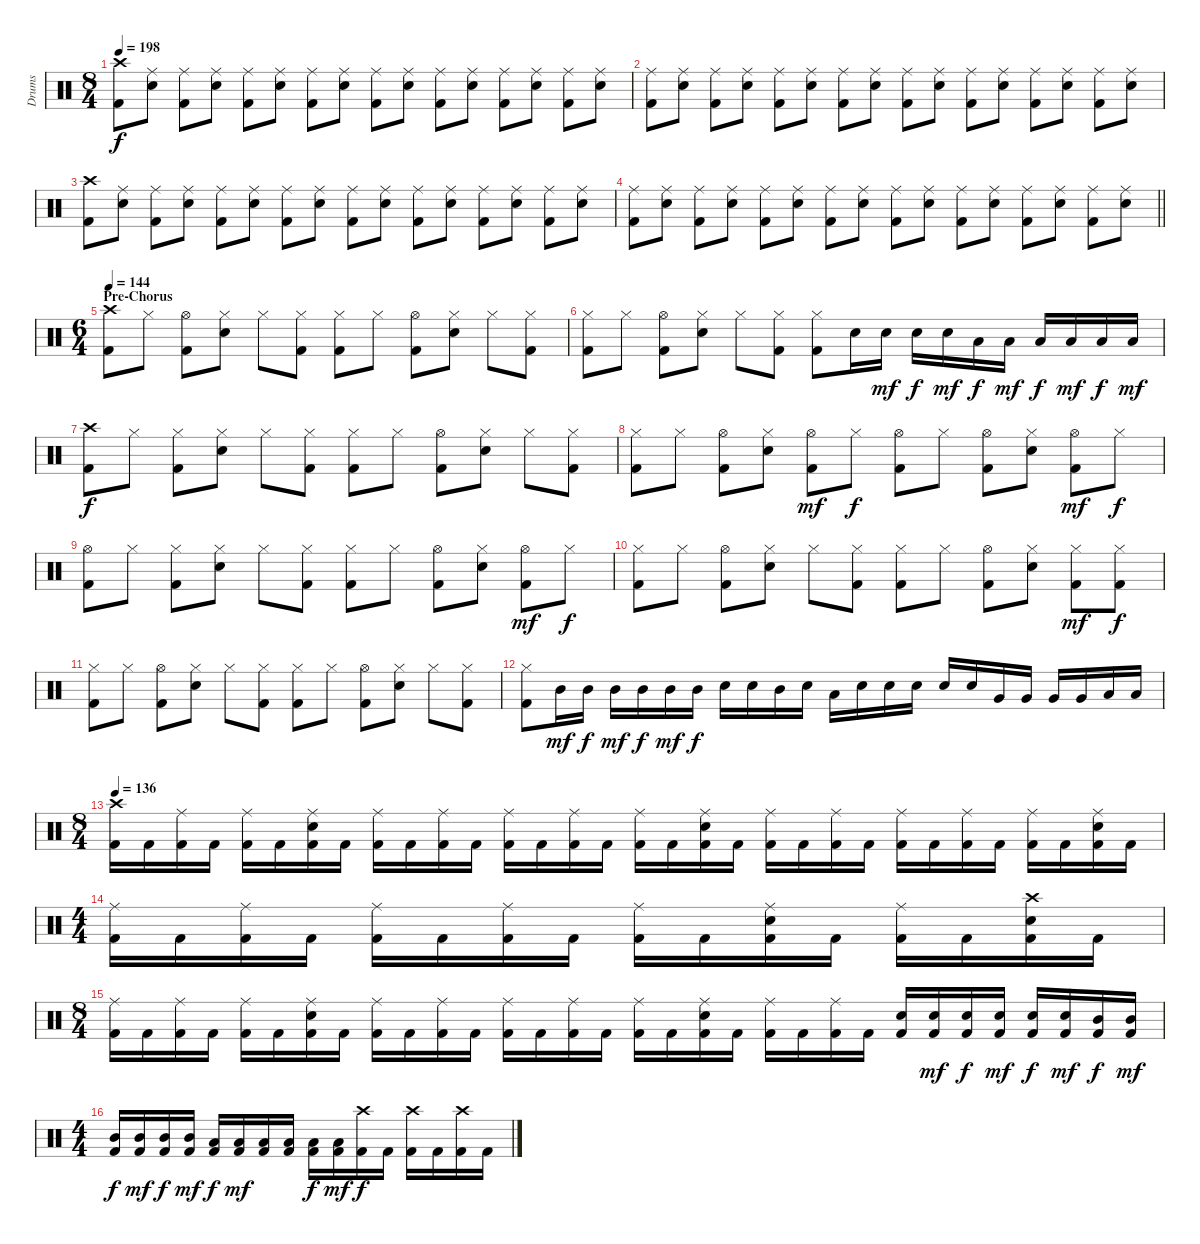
\track ("Drums" "Drums") {instrument percussion}
\staff {score}
\articulation defaults
\ts (8 4)
\tempo 198
\clef neutral
\ks c
("Crash high (hit)" "Kick (hit) 2").8{dy f} ("Ride (middle)" "Snare (hit) 2").8 ("Ride (middle)" "Kick (hit) 2").8 ("Ride (middle)" "Snare (hit) 2").8 ("Ride (middle)" "Kick (hit) 2").8 ("Ride (middle)" "Snare (hit) 2").8 ("Ride (middle)" "Kick (hit) 2").8 ("Ride (middle)" "Snare (hit) 2").8 ("Ride (middle)" "Kick (hit) 2").8 ("Ride (middle)" "Snare (hit) 2").8 ("Ride (middle)" "Kick (hit) 2").8 ("Ride (middle)" "Snare (hit) 2").8 ("Ride (middle)" "Kick (hit) 2").8 ("Ride (middle)" "Snare (hit) 2").8 ("Ride (middle)" "Kick (hit) 2").8 ("Ride (middle)" "Snare (hit) 2").8 |
("Ride (middle)" "Kick (hit) 2").8 ("Ride (middle)" "Snare (hit) 2").8 ("Ride (middle)" "Kick (hit) 2").8 ("Ride (middle)" "Snare (hit) 2").8 ("Ride (middle)" "Kick (hit) 2").8 ("Ride (middle)" "Snare (hit) 2").8 ("Ride (middle)" "Kick (hit) 2").8 ("Ride (middle)" "Snare (hit) 2").8 ("Ride (middle)" "Kick (hit) 2").8 ("Ride (middle)" "Snare (hit) 2").8 ("Ride (middle)" "Kick (hit) 2").8 ("Ride (middle)" "Snare (hit) 2").8 ("Ride (middle)" "Kick (hit) 2").8 ("Ride (middle)" "Snare (hit) 2").8 ("Ride (middle)" "Kick (hit) 2").8 ("Ride (middle)" "Snare (hit) 2").8 |
("Crash high (hit)" "Kick (hit) 2").8 ("Ride (middle)" "Snare (hit) 2").8 ("Ride (middle)" "Kick (hit) 2").8 ("Ride (middle)" "Snare (hit) 2").8 ("Ride (middle)" "Kick (hit) 2").8 ("Ride (middle)" "Snare (hit) 2").8 ("Ride (middle)" "Kick (hit) 2").8 ("Ride (middle)" "Snare (hit) 2").8 ("Ride (middle)" "Kick (hit) 2").8 ("Ride (middle)" "Snare (hit) 2").8 ("Ride (middle)" "Kick (hit) 2").8 ("Ride (middle)" "Snare (hit) 2").8 ("Ride (middle)" "Kick (hit) 2").8 ("Ride (middle)" "Snare (hit) 2").8 ("Ride (middle)" "Kick (hit) 2").8 ("Ride (middle)" "Snare (hit) 2").8 |
\barLineRight lightlight
("Ride (middle)" "Kick (hit) 2").8 ("Ride (middle)" "Snare (hit) 2").8 ("Ride (middle)" "Kick (hit) 2").8 ("Ride (middle)" "Snare (hit) 2").8 ("Ride (middle)" "Kick (hit) 2").8 ("Ride (middle)" "Snare (hit) 2").8 ("Ride (middle)" "Kick (hit) 2").8 ("Ride (middle)" "Snare (hit) 2").8 ("Ride (middle)" "Kick (hit) 2").8 ("Ride (middle)" "Snare (hit) 2").8 ("Ride (middle)" "Kick (hit) 2").8 ("Ride (middle)" "Snare (hit) 2").8 ("Ride (middle)" "Kick (hit) 2").8 ("Ride (middle)" "Snare (hit) 2").8 ("Ride (middle)" "Kick (hit) 2").8 ("Ride (middle)" "Snare (hit) 2").8 |
\ts (6 4)
\section ("" "Pre-Chorus")
\tempo 144
("Crash high (hit)" "Kick (hit) 2").8 "Hi-Hat (closed)".8 ("Hi-Hat (open)" "Kick (hit) 2").8 ("Hi-Hat (closed)" "Snare (hit) 2").8 "Hi-Hat (closed)".8 ("Hi-Hat (closed)" "Kick (hit) 2").8 ("Hi-Hat (closed)" "Kick (hit) 2").8 "Hi-Hat (closed)".8 ("Hi-Hat (open)" "Kick (hit) 2").8 ("Hi-Hat (closed)" "Snare (hit) 2").8 "Hi-Hat (closed)".8 ("Hi-Hat (closed)" "Kick (hit) 2").8 |
("Hi-Hat (closed)" "Kick (hit) 2").8 "Hi-Hat (closed)".8 ("Hi-Hat (open)" "Kick (hit) 2").8 ("Hi-Hat (closed)" "Snare (hit) 2").8 "Hi-Hat (closed)".8 ("Hi-Hat (closed)" "Kick (hit) 2").8 ("Hi-Hat (closed)" "Kick (hit) 2").8 "Snare (hit) 2".16 "Snare (hit) 2".16{dy mf} "Snare (hit) 2".16{dy f} "Snare (hit) 2".16{dy mf} "Low Tom (hit)".16{dy f} "Low Tom (hit)".16{dy mf} "Low Tom (hit)".16{dy f} "Low Tom (hit)".16{dy mf} "Low Tom (hit)".16{dy f} "Low Tom (hit)".16{dy mf} |
("Crash high (hit)" "Kick (hit) 2").8{dy f} "Hi-Hat (closed)".8 ("Hi-Hat (closed)" "Kick (hit) 2").8 ("Hi-Hat (closed)" "Snare (hit) 2").8 "Hi-Hat (closed)".8 ("Hi-Hat (closed)" "Kick (hit) 2").8 ("Hi-Hat (closed)" "Kick (hit) 2").8 "Hi-Hat (closed)".8 ("Hi-Hat (open)" "Kick (hit) 2").8 ("Hi-Hat (closed)" "Snare (hit) 2").8 "Hi-Hat (closed)".8 ("Hi-Hat (closed)" "Kick (hit) 2").8 |
("Hi-Hat (closed)" "Kick (hit) 2").8 "Hi-Hat (closed)".8 ("Hi-Hat (open)" "Kick (hit) 2").8 ("Hi-Hat (closed)" "Snare (hit) 2").8 ("Hi-Hat (open)" "Kick (hit) 2").8{dy mf} "Hi-Hat (closed)".8{dy f} ("Hi-Hat (open)" "Kick (hit) 2").8 "Hi-Hat (closed)".8 ("Hi-Hat (open)" "Kick (hit) 2").8 ("Hi-Hat (closed)" "Snare (hit) 2").8 ("Hi-Hat (open)" "Kick (hit) 2").8{dy mf} "Hi-Hat (closed)".8{dy f} |
("Hi-Hat (open)" "Kick (hit) 2").8 "Hi-Hat (closed)".8 ("Hi-Hat (closed)" "Kick (hit) 2").8 ("Hi-Hat (closed)" "Snare (hit) 2").8 "Hi-Hat (closed)".8 ("Hi-Hat (closed)" "Kick (hit) 2").8 ("Hi-Hat (closed)" "Kick (hit) 2").8 "Hi-Hat (closed)".8 ("Hi-Hat (open)" "Kick (hit) 2").8 ("Hi-Hat (closed)" "Snare (hit) 2").8 ("Hi-Hat (open)" "Kick (hit) 2").8{dy mf} "Hi-Hat (closed)".8{dy f} |
("Hi-Hat (closed)" "Kick (hit) 2").8 "Hi-Hat (closed)".8 ("Hi-Hat (open)" "Kick (hit) 2").8 ("Hi-Hat (closed)" "Snare (hit) 2").8 "Hi-Hat (closed)".8 ("Hi-Hat (closed)" "Kick (hit) 2").8 ("Hi-Hat (closed)" "Kick (hit) 2").8 "Hi-Hat (closed)".8 ("Hi-Hat (open)" "Kick (hit) 2").8 ("Hi-Hat (closed)" "Snare (hit) 2").8 ("Hi-Hat (closed)" "Kick (hit) 2").8{dy mf} ("Hi-Hat (closed)" "Kick (hit) 2").8{dy f} |
("Hi-Hat (closed)" "Kick (hit) 2").8 "Hi-Hat (closed)".8 ("Hi-Hat (open)" "Kick (hit) 2").8 ("Hi-Hat (closed)" "Snare (hit) 2").8 "Hi-Hat (closed)".8 ("Hi-Hat (closed)" "Kick (hit) 2").8 ("Hi-Hat (closed)" "Kick (hit) 2").8 "Hi-Hat (closed)".8 ("Hi-Hat (open)" "Kick (hit) 2").8 ("Hi-Hat (closed)" "Snare (hit) 2").8 "Hi-Hat (closed)".8 ("Hi-Hat (closed)" "Kick (hit) 2").8 |
("Hi-Hat (closed)" "Kick (hit) 2").8 "Mid Tom (hit)".16{dy mf} "Mid Tom (hit)".16{dy f} "Mid Tom (hit)".16{dy mf} "Mid Tom (hit)".16{dy f} "Mid Tom (hit)".16{dy mf} "Mid Tom (hit)".16{dy f} "Snare (hit) 2".16 "Snare (hit) 2".16 "Mid Tom (hit)".16 "Snare (hit) 2".16 "Low Tom (hit)".16 "Snare (hit) 2".16 "Snare (hit) 2".16 "Snare (hit) 2".16 "Snare (hit) 2".16 "Snare (hit) 2".16 "Very Low Tom (hit)".16 "Very Low Tom (hit)".16 "Very Low Tom (hit)".16 "Very Low Tom (hit)".16 "Low Floor Tom (hit)".16 "Low Floor Tom (hit)".16 |
\ts (8 4)
\tempo 136
("Crash high (hit)" "Kick (hit) 2").16 "Kick (hit) 2".16 ("Ride (middle)" "Kick (hit) 2").16 "Kick (hit) 2".16 ("Ride (middle)" "Kick (hit) 2").16 "Kick (hit) 2".16 ("Ride (middle)" "Snare (hit) 2" "Kick (hit) 2").16 "Kick (hit) 2".16 ("Ride (middle)" "Kick (hit) 2").16 "Kick (hit) 2".16 ("Ride (middle)" "Kick (hit) 2").16 "Kick (hit) 2".16 ("Ride (middle)" "Kick (hit) 2").16 "Kick (hit) 2".16 ("Ride (middle)" "Kick (hit) 2").16 "Kick (hit) 2".16 ("Ride (middle)" "Kick (hit) 2").16 "Kick (hit) 2".16 ("Ride (middle)" "Snare (hit) 2" "Kick (hit) 2").16 "Kick (hit) 2".16 ("Ride (middle)" "Kick (hit) 2").16 "Kick (hit) 2".16 ("Ride (middle)" "Kick (hit) 2").16 "Kick (hit) 2".16 ("Ride (middle)" "Kick (hit) 2").16 "Kick (hit) 2".16 ("Ride (middle)" "Kick (hit) 2").16 "Kick (hit) 2".16 ("Ride (middle)" "Kick (hit) 2").16 "Kick (hit) 2".16 ("Ride (middle)" "Snare (hit) 2" "Kick (hit) 2").16 "Kick (hit) 2".16 |
\ts (4 4)
("Ride (middle)" "Kick (hit) 2").16 "Kick (hit) 2".16 ("Ride (middle)" "Kick (hit) 2").16 "Kick (hit) 2".16 ("Ride (middle)" "Kick (hit) 2").16 "Kick (hit) 2".16 ("Ride (middle)" "Kick (hit) 2").16 "Kick (hit) 2".16 ("Ride (middle)" "Kick (hit) 2").16 "Kick (hit) 2".16 ("Ride (middle)" "Snare (hit) 2" "Kick (hit) 2").16 "Kick (hit) 2".16 ("Ride (middle)" "Kick (hit) 2").16 "Kick (hit) 2".16 ("Crash high (hit)" "Snare (hit) 2" "Kick (hit) 2").16 "Kick (hit) 2".16 |
\ts (8 4)
("Ride (middle)" "Kick (hit) 2").16 "Kick (hit) 2".16 ("Ride (middle)" "Kick (hit) 2").16 "Kick (hit) 2".16 ("Ride (middle)" "Kick (hit) 2").16 "Kick (hit) 2".16 ("Ride (middle)" "Snare (hit) 2" "Kick (hit) 2").16 "Kick (hit) 2".16 ("Ride (middle)" "Kick (hit) 2").16 "Kick (hit) 2".16 ("Ride (middle)" "Kick (hit) 2").16 "Kick (hit) 2".16 ("Ride (middle)" "Kick (hit) 2").16 "Kick (hit) 2".16 ("Ride (middle)" "Kick (hit) 2").16 "Kick (hit) 2".16 ("Ride (middle)" "Kick (hit) 2").16 "Kick (hit) 2".16 ("Ride (middle)" "Snare (hit) 2" "Kick (hit) 2").16 "Kick (hit) 2".16 ("Ride (middle)" "Kick (hit) 2").16 "Kick (hit) 2".16 ("Ride (middle)" "Kick (hit) 2").16 "Kick (hit) 2".16 ("Snare (hit) 2" "Kick (hit) 2").16 ("Snare (hit) 2" "Kick (hit) 2").16{dy mf} ("Snare (hit) 2" "Kick (hit) 2").16{dy f} ("Snare (hit) 2" "Kick (hit) 2").16{dy mf} ("Snare (hit) 2" "Kick (hit) 2").16{dy f} ("Snare (hit) 2" "Kick (hit) 2").16{dy mf} ("Mid Tom (hit)" "Kick (hit) 2").16{dy f} ("Mid Tom (hit)" "Kick (hit) 2").16{dy mf} |
\ts (4 4)
("Mid Tom (hit)" "Kick (hit) 2").16{dy f} ("Mid Tom (hit)" "Kick (hit) 2").16{dy mf} ("Mid Tom (hit)" "Kick (hit) 2").16{dy f} ("Mid Tom (hit)" "Kick (hit) 2").16{dy mf} ("Low Tom (hit)" "Kick (hit) 2").16{dy f} ("Low Tom (hit)" "Kick (hit) 2").16{dy mf} ("Low Tom (hit)" "Kick (hit) 2").16 ("Low Tom (hit)" "Kick (hit) 2").16 ("Low Tom (hit)" "Kick (hit) 2").16{dy f} ("Low Tom (hit)" "Kick (hit) 2").16{dy mf} ("Crash high (hit)" "Kick (hit) 2").16{dy f} "Kick (hit) 2".16 ("Crash high (hit)" "Kick (hit) 2").16 "Kick (hit) 2".16 ("Crash high (hit)" "Kick (hit) 2").16 "Kick (hit) 2".16
